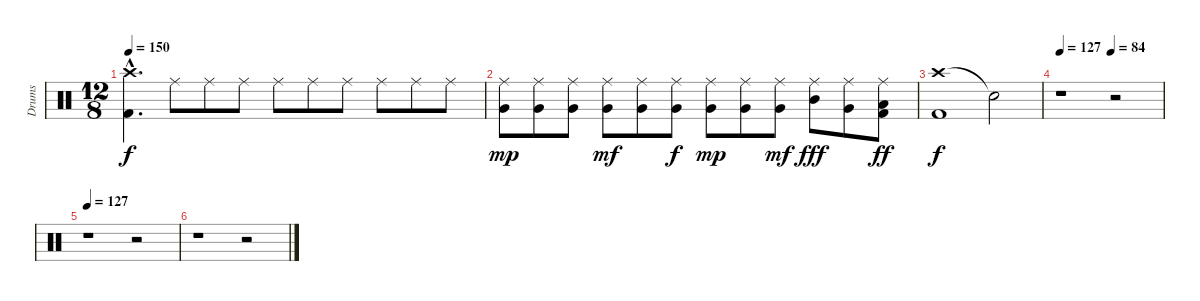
\track ("Drums" "Drums") {instrument percussion}
\staff {score}
\articulation defaults
\ts (12 8)
\tempo 150
\clef neutral
\ks c
("Crash high (hit)"{hac} "Kick (hit) 2"{hac}).4{d dy f} "Ride (middle)".8 "Ride (middle)".8 "Ride (middle)".8 "Ride (middle)".8 "Ride (middle)".8 "Ride (middle)".8 "Ride (middle)".8 "Ride (middle)".8 "Ride (middle)".8 |
("Ride (middle)" "Very Low Tom (hit)").8{dy mp} ("Ride (middle)" "Very Low Tom (hit)").8 ("Ride (middle)" "Very Low Tom (hit)").8 ("Ride (middle)" "Very Low Tom (hit)").8{dy mf} ("Ride (middle)" "Very Low Tom (hit)").8 ("Ride (middle)" "Very Low Tom (hit)").8{dy f} ("Ride (middle)" "Very Low Tom (hit)").8{dy mp} ("Ride (middle)" "Very Low Tom (hit)").8 ("Ride (middle)" "Very Low Tom (hit)").8{dy mf} ("Ride (middle)" "Mid Tom (hit)").8{dy fff} ("Ride (middle)" "Very Low Tom (hit)").8 ("Ride (middle)" "Low Floor Tom (hit)" "Kick (hit) 2").8{dy ff} |
("Crash high (hit)" "Kick (hit) 2").1{dy f} "Snare (hit)"{t}.2 |
\tempo 127
\tempo (84 0.5)
r.1 r.2 |
\tempo 127
r.1 r.2 |
r.1 r.2
